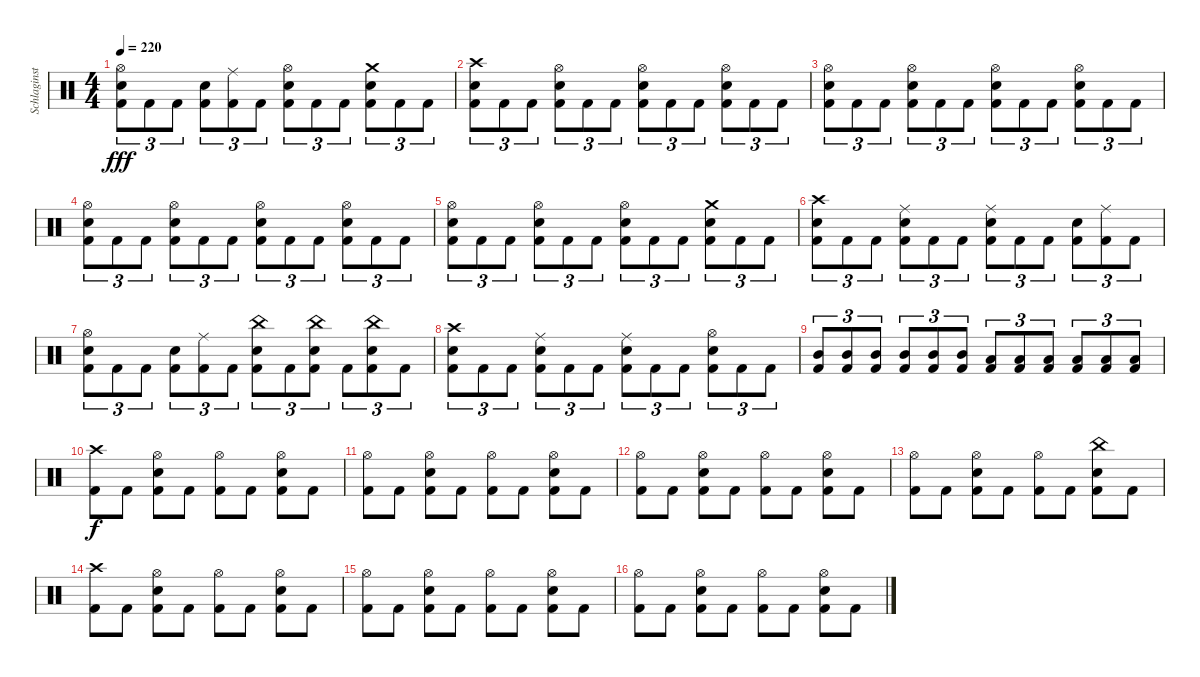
\track ("Schlaginstrumente - Auswahl" "Schlaginst") {instrument percussion}
\staff {score}
\articulation defaults
\ts (4 4)
\tempo 220
\clef neutral
\ks c
("Hi-Hat (open)" "Snare (hit) 2" "Kick (hit) 2").8{tu (3 2) dy fff} "Kick (hit) 2".8{tu (3 2)} "Kick (hit) 2".8{tu (3 2)} ("Snare (hit) 2" "Kick (hit) 2").8{tu (3 2)} ("Ride (middle)" "Kick (hit) 2").8{tu (3 2)} "Kick (hit) 2".8{tu (3 2)} ("Hi-Hat (open)" "Snare (hit) 2" "Kick (hit) 2").8{tu (3 2)} "Kick (hit) 2".8{tu (3 2)} "Kick (hit) 2".8{tu (3 2)} ("Crash medium (hit)" "Snare (hit) 2" "Kick (hit) 2").8{tu (3 2)} "Kick (hit) 2".8{tu (3 2)} "Kick (hit) 2".8{tu (3 2)} |
("Crash high (hit)" "Snare (hit) 2" "Kick (hit) 2").8{tu (3 2)} "Kick (hit) 2".8{tu (3 2)} "Kick (hit) 2".8{tu (3 2)} ("Hi-Hat (open)" "Snare (hit) 2" "Kick (hit) 2").8{tu (3 2)} "Kick (hit) 2".8{tu (3 2)} "Kick (hit) 2".8{tu (3 2)} ("Hi-Hat (open)" "Snare (hit) 2" "Kick (hit) 2").8{tu (3 2)} "Kick (hit) 2".8{tu (3 2)} "Kick (hit) 2".8{tu (3 2)} ("Hi-Hat (open)" "Snare (hit) 2" "Kick (hit) 2").8{tu (3 2)} "Kick (hit) 2".8{tu (3 2)} "Kick (hit) 2".8{tu (3 2)} |
("Hi-Hat (open)" "Snare (hit) 2" "Kick (hit) 2").8{tu (3 2)} "Kick (hit) 2".8{tu (3 2)} "Kick (hit) 2".8{tu (3 2)} ("Hi-Hat (open)" "Snare (hit) 2" "Kick (hit) 2").8{tu (3 2)} "Kick (hit) 2".8{tu (3 2)} "Kick (hit) 2".8{tu (3 2)} ("Hi-Hat (open)" "Snare (hit) 2" "Kick (hit) 2").8{tu (3 2)} "Kick (hit) 2".8{tu (3 2)} "Kick (hit) 2".8{tu (3 2)} ("Hi-Hat (open)" "Snare (hit) 2" "Kick (hit) 2").8{tu (3 2)} "Kick (hit) 2".8{tu (3 2)} "Kick (hit) 2".8{tu (3 2)} |
("Hi-Hat (open)" "Snare (hit) 2" "Kick (hit) 2").8{tu (3 2)} "Kick (hit) 2".8{tu (3 2)} "Kick (hit) 2".8{tu (3 2)} ("Hi-Hat (open)" "Snare (hit) 2" "Kick (hit) 2").8{tu (3 2)} "Kick (hit) 2".8{tu (3 2)} "Kick (hit) 2".8{tu (3 2)} ("Hi-Hat (open)" "Snare (hit) 2" "Kick (hit) 2").8{tu (3 2)} "Kick (hit) 2".8{tu (3 2)} "Kick (hit) 2".8{tu (3 2)} ("Hi-Hat (open)" "Snare (hit) 2" "Kick (hit) 2").8{tu (3 2)} "Kick (hit) 2".8{tu (3 2)} "Kick (hit) 2".8{tu (3 2)} |
("Hi-Hat (open)" "Snare (hit) 2" "Kick (hit) 2").8{tu (3 2)} "Kick (hit) 2".8{tu (3 2)} "Kick (hit) 2".8{tu (3 2)} ("Hi-Hat (open)" "Snare (hit) 2" "Kick (hit) 2").8{tu (3 2)} "Kick (hit) 2".8{tu (3 2)} "Kick (hit) 2".8{tu (3 2)} ("Hi-Hat (open)" "Snare (hit) 2" "Kick (hit) 2").8{tu (3 2)} "Kick (hit) 2".8{tu (3 2)} "Kick (hit) 2".8{tu (3 2)} ("Crash medium (hit)" "Snare (hit) 2" "Kick (hit) 2").8{tu (3 2)} "Kick (hit) 2".8{tu (3 2)} "Kick (hit) 2".8{tu (3 2)} |
("Crash high (hit)" "Snare (hit) 2" "Kick (hit) 2").8{tu (3 2)} "Kick (hit) 2".8{tu (3 2)} "Kick (hit) 2".8{tu (3 2)} ("Ride (middle)" "Snare (hit) 2" "Kick (hit) 2").8{tu (3 2)} "Kick (hit) 2".8{tu (3 2)} "Kick (hit) 2".8{tu (3 2)} ("Ride (middle)" "Snare (hit) 2" "Kick (hit) 2").8{tu (3 2)} "Kick (hit) 2".8{tu (3 2)} "Kick (hit) 2".8{tu (3 2)} ("Snare (hit) 2" "Kick (hit) 2").8{tu (3 2)} ("Ride (middle)" "Kick (hit) 2").8{tu (3 2)} "Kick (hit) 2".8{tu (3 2)} |
("Hi-Hat (open)" "Snare (hit) 2" "Kick (hit) 2").8{tu (3 2)} "Kick (hit) 2".8{tu (3 2)} "Kick (hit) 2".8{tu (3 2)} ("Snare (hit) 2" "Kick (hit) 2").8{tu (3 2)} ("Ride (middle)" "Kick (hit) 2").8{tu (3 2)} "Kick (hit) 2".8{tu (3 2)} ("China (hit)" "Snare (hit) 2" "Kick (hit) 2").8{tu (3 2)} "Kick (hit) 2".8{tu (3 2)} ("China (hit)" "Snare (hit) 2" "Kick (hit) 2").8{tu (3 2)} "Kick (hit) 2".8{tu (3 2)} ("China (hit)" "Snare (hit) 2" "Kick (hit) 2").8{tu (3 2)} "Kick (hit) 2".8{tu (3 2)} |
("Crash high (hit)" "Snare (hit) 2" "Kick (hit) 2").8{tu (3 2)} "Kick (hit) 2".8{tu (3 2)} "Kick (hit) 2".8{tu (3 2)} ("Ride (middle)" "Snare (hit) 2" "Kick (hit) 2").8{tu (3 2)} "Kick (hit) 2".8{tu (3 2)} "Kick (hit) 2".8{tu (3 2)} ("Ride (middle)" "Snare (hit) 2" "Kick (hit) 2").8{tu (3 2)} "Kick (hit) 2".8{tu (3 2)} "Kick (hit) 2".8{tu (3 2)} ("Hi-Hat (open)" "Snare (hit) 2" "Kick (hit) 2").8{tu (3 2)} "Kick (hit) 2".8{tu (3 2)} "Kick (hit) 2".8{tu (3 2)} |
("Mid Tom (hit)" "Kick (hit) 2").8{tu (3 2)} ("Mid Tom (hit)" "Kick (hit) 2").8{tu (3 2)} ("Mid Tom (hit)" "Kick (hit) 2").8{tu (3 2)} ("Mid Tom (hit)" "Kick (hit) 2").8{tu (3 2)} ("Mid Tom (hit)" "Kick (hit) 2").8{tu (3 2)} ("Mid Tom (hit)" "Kick (hit) 2").8{tu (3 2)} ("Low Tom (hit)" "Kick (hit) 2").8{tu (3 2)} ("Low Tom (hit)" "Kick (hit) 2").8{tu (3 2)} ("Low Tom (hit)" "Kick (hit) 2").8{tu (3 2)} ("Low Tom (hit)" "Kick (hit) 2").8{tu (3 2)} ("Low Tom (hit)" "Kick (hit) 2").8{tu (3 2)} ("Low Tom (hit)" "Kick (hit) 2").8{tu (3 2)} |
("Crash high (hit)" "Kick (hit) 2").8{dy f} "Kick (hit) 2".8 ("Hi-Hat (open)" "Snare (hit) 2" "Kick (hit) 2").8 "Kick (hit) 2".8 ("Hi-Hat (open)" "Kick (hit) 2").8 "Kick (hit) 2".8 ("Hi-Hat (open)" "Snare (hit) 2" "Kick (hit) 2").8 "Kick (hit) 2".8 |
("Hi-Hat (open)" "Kick (hit) 2").8 "Kick (hit) 2".8 ("Hi-Hat (open)" "Snare (hit) 2" "Kick (hit) 2").8 "Kick (hit) 2".8 ("Hi-Hat (open)" "Kick (hit) 2").8 "Kick (hit) 2".8 ("Hi-Hat (open)" "Snare (hit) 2" "Kick (hit) 2").8 "Kick (hit) 2".8 |
("Hi-Hat (open)" "Kick (hit) 2").8 "Kick (hit) 2".8 ("Hi-Hat (open)" "Snare (hit) 2" "Kick (hit) 2").8 "Kick (hit) 2".8 ("Hi-Hat (open)" "Kick (hit) 2").8 "Kick (hit) 2".8 ("Hi-Hat (open)" "Snare (hit) 2" "Kick (hit) 2").8 "Kick (hit) 2".8 |
("Hi-Hat (open)" "Kick (hit) 2").8 "Kick (hit) 2".8 ("Hi-Hat (open)" "Snare (hit) 2" "Kick (hit) 2").8 "Kick (hit) 2".8 ("Hi-Hat (open)" "Kick (hit) 2").8 "Kick (hit) 2".8 ("China (hit)" "Snare (hit) 2" "Kick (hit) 2").8 "Kick (hit) 2".8 |
("Crash high (hit)" "Kick (hit) 2").8 "Kick (hit) 2".8 ("Hi-Hat (open)" "Snare (hit) 2" "Kick (hit) 2").8 "Kick (hit) 2".8 ("Hi-Hat (open)" "Kick (hit) 2").8 "Kick (hit) 2".8 ("Hi-Hat (open)" "Snare (hit) 2" "Kick (hit) 2").8 "Kick (hit) 2".8 |
("Hi-Hat (open)" "Kick (hit) 2").8 "Kick (hit) 2".8 ("Hi-Hat (open)" "Snare (hit) 2" "Kick (hit) 2").8 "Kick (hit) 2".8 ("Hi-Hat (open)" "Kick (hit) 2").8 "Kick (hit) 2".8 ("Hi-Hat (open)" "Snare (hit) 2" "Kick (hit) 2").8 "Kick (hit) 2".8 |
("Hi-Hat (open)" "Kick (hit) 2").8 "Kick (hit) 2".8 ("Hi-Hat (open)" "Snare (hit) 2" "Kick (hit) 2").8 "Kick (hit) 2".8 ("Hi-Hat (open)" "Kick (hit) 2").8 "Kick (hit) 2".8 ("Hi-Hat (open)" "Snare (hit) 2" "Kick (hit) 2").8 "Kick (hit) 2".8
